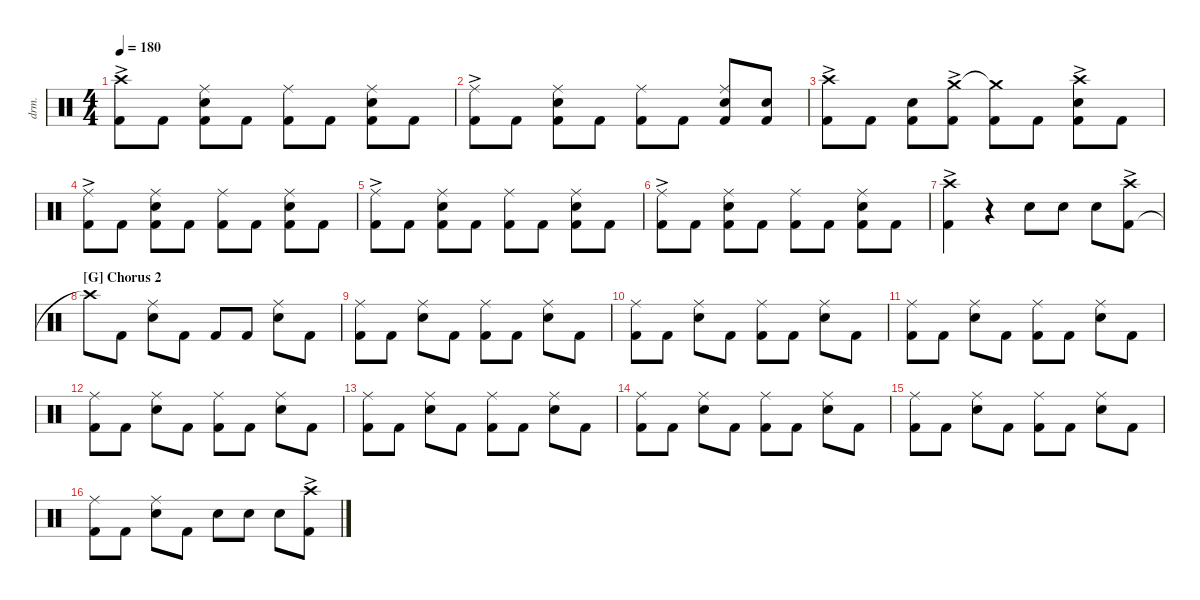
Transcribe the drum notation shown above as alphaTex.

\defaultSystemsLayout 4
\hideDynamics
\bracketExtendMode nobrackets
\otherSystemsTrackNameOrientation horizontal
\track ("Drum" "drm.") {instrument percussion}
\staff {score}
\articulation defaults
\ts (4 4)
\tempo 180
\clef neutral
\ks c
("Kick (hit) 2"{ac} "Crash high (hit)"{ac}).8{dy f beam Down} "Kick (hit) 2".8{beam Down} ("Kick (hit) 2" "Snare (hit) 2" "Ride (middle)").8{beam Down} "Kick (hit) 2".8{beam Down} ("Kick (hit) 2" "Ride (middle)").8{beam Down} "Kick (hit) 2".8{beam Down} ("Kick (hit) 2" "Snare (hit) 2" "Ride (middle)").8{beam Down} "Kick (hit) 2".8{beam Down} |
("Kick (hit) 2"{ac} "Ride (middle)").8{beam Down} "Kick (hit) 2".8{beam Down} ("Kick (hit) 2" "Snare (hit) 2" "Ride (middle)").8{beam Down} "Kick (hit) 2".8{beam Down} ("Kick (hit) 2" "Ride (middle)").8{beam Down} "Kick (hit) 2".8{beam Down} ("Kick (hit) 2" "Snare (hit) 2" "Ride (middle)").8{beam Up} ("Kick (hit) 2" "Snare (hit) 2").8{beam Up} |
("Kick (hit) 2"{ac} "Crash high (hit)"{ac}).8{beam Down} "Kick (hit) 2".8{beam Down} ("Kick (hit) 2" "Snare (hit) 2").8{beam Down} ("Kick (hit) 2"{ac} "Crash medium (hit)"{ac}).8{beam Down} ("Kick (hit) 2" "Crash medium (hit)"{t}).8{beam Down} "Kick (hit) 2".8{beam Down} ("Kick (hit) 2"{ac} "Snare (hit) 2"{ac} "Crash high (hit)"{ac}).8{beam Down} "Kick (hit) 2".8{beam Down} |
("Kick (hit) 2"{ac} "Ride (middle)").8{beam Down} "Kick (hit) 2".8{beam Down} ("Kick (hit) 2" "Snare (hit) 2" "Ride (middle)").8{beam Down} "Kick (hit) 2".8{beam Down} ("Kick (hit) 2" "Ride (middle)").8{beam Down} "Kick (hit) 2".8{beam Down} ("Kick (hit) 2" "Snare (hit) 2" "Ride (middle)").8{beam Down} "Kick (hit) 2".8{beam Down} |
("Kick (hit) 2"{ac} "Ride (middle)").8{beam Down} "Kick (hit) 2".8{beam Down} ("Kick (hit) 2" "Snare (hit) 2" "Ride (middle)").8{beam Down} "Kick (hit) 2".8{beam Down} ("Kick (hit) 2" "Ride (middle)").8{beam Down} "Kick (hit) 2".8{beam Down} ("Kick (hit) 2" "Snare (hit) 2" "Ride (middle)").8{beam Down} "Kick (hit) 2".8{beam Down} |
("Kick (hit) 2"{ac} "Ride (middle)").8{beam Down} "Kick (hit) 2".8{beam Down} ("Kick (hit) 2" "Snare (hit) 2" "Ride (middle)").8{beam Down} "Kick (hit) 2".8{beam Down} ("Kick (hit) 2" "Ride (middle)").8{beam Down} "Kick (hit) 2".8{beam Down} ("Kick (hit) 2" "Snare (hit) 2" "Ride (middle)").8{beam Down} "Kick (hit) 2".8{beam Down} |
("Kick (hit) 2"{ac} "Crash high (hit)"{ac}).4{beam Down} r.4{beam Down} "Snare (hit) 2".8{beam Down} "Snare (hit) 2".8{beam Down} "Snare (hit) 2".8{beam Down} ("Kick (hit) 2"{ac} "Crash high (hit)"{ac}).8{beam Down} |
\section ("G" "Chorus 2")
"Crash high (hit)"{t}.8{beam Down} "Kick (hit) 2".8{beam Down} ("Snare (hit) 2" "Ride (middle)").8{beam Down} "Kick (hit) 2".8{beam Down} "Kick (hit) 2".8{beam Up} "Kick (hit) 2".8{beam Up} ("Snare (hit) 2" "Ride (middle)").8{beam Down} "Kick (hit) 2".8{beam Down} |
("Ride (middle)" "Kick (hit) 2").8{beam Down} "Kick (hit) 2".8{beam Down} ("Snare (hit) 2" "Ride (middle)").8{beam Down} "Kick (hit) 2".8{beam Down} ("Kick (hit) 2" "Ride (middle)").8{beam Down} "Kick (hit) 2".8{beam Down} ("Snare (hit) 2" "Ride (middle)").8{beam Down} "Kick (hit) 2".8{beam Down} |
("Ride (middle)" "Kick (hit) 2").8{beam Down} "Kick (hit) 2".8{beam Down} ("Snare (hit) 2" "Ride (middle)").8{beam Down} "Kick (hit) 2".8{beam Down} ("Kick (hit) 2" "Ride (middle)").8{beam Down} "Kick (hit) 2".8{beam Down} ("Snare (hit) 2" "Ride (middle)").8{beam Down} "Kick (hit) 2".8{beam Down} |
("Ride (middle)" "Kick (hit) 2").8{beam Down} "Kick (hit) 2".8{beam Down} ("Snare (hit) 2" "Ride (middle)").8{beam Down} "Kick (hit) 2".8{beam Down} ("Kick (hit) 2" "Ride (middle)").8{beam Down} "Kick (hit) 2".8{beam Down} ("Snare (hit) 2" "Ride (middle)").8{beam Down} "Kick (hit) 2".8{beam Down} |
("Ride (middle)" "Kick (hit) 2").8{beam Down} "Kick (hit) 2".8{beam Down} ("Snare (hit) 2" "Ride (middle)").8{beam Down} "Kick (hit) 2".8{beam Down} ("Kick (hit) 2" "Ride (middle)").8{beam Down} "Kick (hit) 2".8{beam Down} ("Snare (hit) 2" "Ride (middle)").8{beam Down} "Kick (hit) 2".8{beam Down} |
("Ride (middle)" "Kick (hit) 2").8{beam Down} "Kick (hit) 2".8{beam Down} ("Snare (hit) 2" "Ride (middle)").8{beam Down} "Kick (hit) 2".8{beam Down} ("Kick (hit) 2" "Ride (middle)").8{beam Down} "Kick (hit) 2".8{beam Down} ("Snare (hit) 2" "Ride (middle)").8{beam Down} "Kick (hit) 2".8{beam Down} |
("Ride (middle)" "Kick (hit) 2").8{beam Down} "Kick (hit) 2".8{beam Down} ("Snare (hit) 2" "Ride (middle)").8{beam Down} "Kick (hit) 2".8{beam Down} ("Kick (hit) 2" "Ride (middle)").8{beam Down} "Kick (hit) 2".8{beam Down} ("Snare (hit) 2" "Ride (middle)").8{beam Down} "Kick (hit) 2".8{beam Down} |
("Ride (middle)" "Kick (hit) 2").8{beam Down} "Kick (hit) 2".8{beam Down} ("Snare (hit) 2" "Ride (middle)").8{beam Down} "Kick (hit) 2".8{beam Down} ("Kick (hit) 2" "Ride (middle)").8{beam Down} "Kick (hit) 2".8{beam Down} ("Snare (hit) 2" "Ride (middle)").8{beam Down} "Kick (hit) 2".8{beam Down} |
("Ride (middle)" "Kick (hit) 2").8{beam Down} "Kick (hit) 2".8{beam Down} ("Snare (hit) 2" "Ride (middle)").8{beam Down} "Kick (hit) 2".8{beam Down} "Snare (hit) 2".8{beam Down} "Snare (hit) 2".8{beam Down} "Snare (hit) 2".8{beam Down} ("Kick (hit) 2"{ac} "Crash high (hit)"{ac}).8{beam Down}
